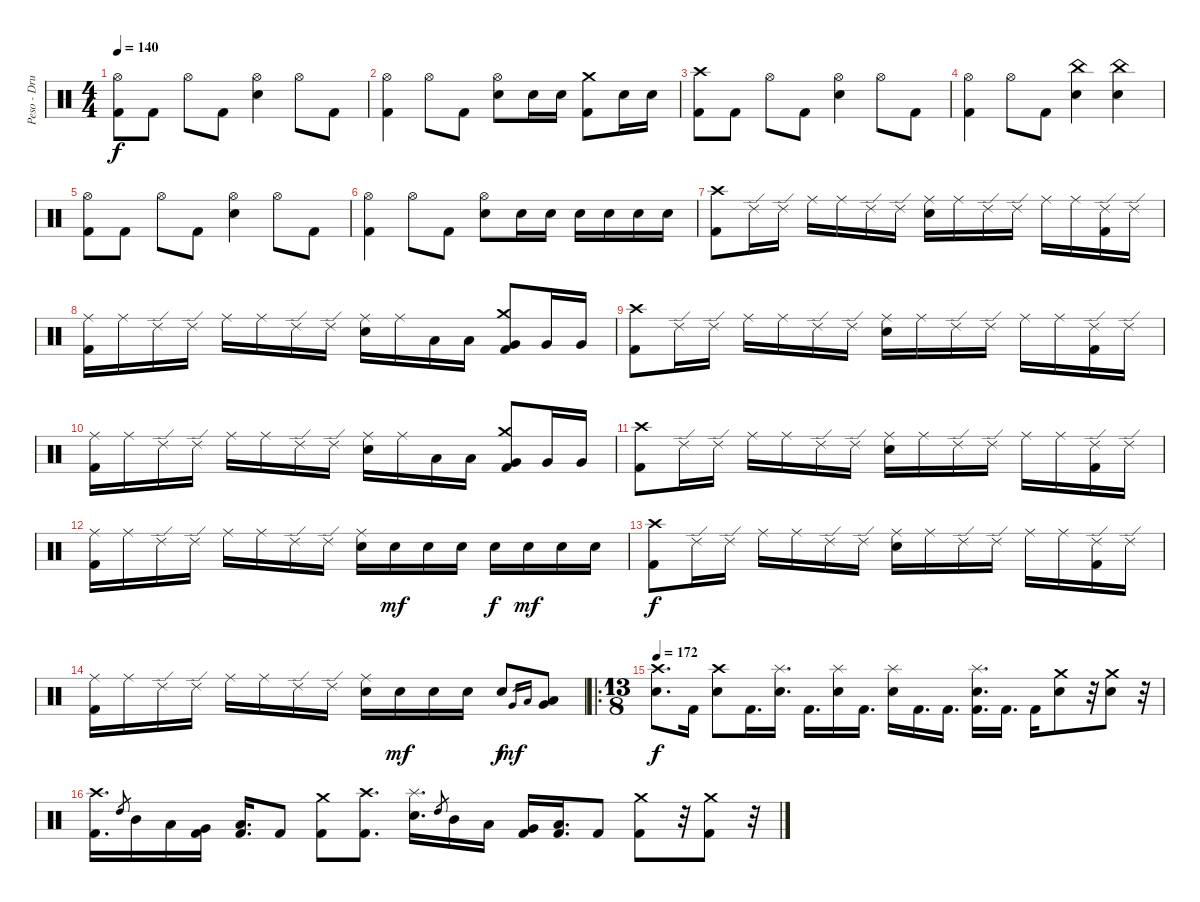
\track ("Peso - Drums" "Peso - Dru") {instrument percussion}
\staff {score}
\articulation defaults
\ts (4 4)
\tempo 140
\clef neutral
\ks c
("Hi-Hat (open)" "Kick (hit) 2").8{dy f} "Kick (hit) 2".8 "Hi-Hat (open)".8 "Kick (hit) 2".8 ("Hi-Hat (open)" "Electric Snare (hit)").4 "Hi-Hat (open)".8 "Kick (hit) 2".8 |
("Hi-Hat (open)" "Kick (hit) 2").4 "Hi-Hat (open)".8 "Kick (hit) 2".8 ("Hi-Hat (open)" "Electric Snare (hit)").8 "Electric Snare (hit)".16 "Electric Snare (hit)".16 ("Crash medium (hit)" "Kick (hit) 2").8 "Electric Snare (hit)".16 "Electric Snare (hit)".16 |
("Crash high (hit)" "Kick (hit) 2").8 "Kick (hit) 2".8 "Hi-Hat (open)".8 "Kick (hit) 2".8 ("Hi-Hat (open)" "Electric Snare (hit)").4 "Hi-Hat (open)".8 "Kick (hit) 2".8 |
("Hi-Hat (open)" "Kick (hit) 2").4 "Hi-Hat (open)".8 "Kick (hit) 2".8 ("China (hit)" "Electric Snare (hit)").4 ("China (hit)" "Electric Snare (hit)").4 |
("Hi-Hat (open)" "Kick (hit) 2").8 "Kick (hit) 2".8 "Hi-Hat (open)".8 "Kick (hit) 2".8 ("Hi-Hat (open)" "Electric Snare (hit)").4 "Hi-Hat (open)".8 "Kick (hit) 2".8 |
("Hi-Hat (open)" "Kick (hit) 2").4 "Hi-Hat (open)".8 "Kick (hit) 2".8 ("Hi-Hat (open)" "Electric Snare (hit)").8 "Electric Snare (hit)".16 "Electric Snare (hit)".16 "Electric Snare (hit)".16 "Electric Snare (hit)".16 "Electric Snare (hit)".16 "Electric Snare (hit)".16 |
("Crash high (hit)" "Kick (hit) 2").8 "Ride (edge) 2".16 "Ride (edge) 2".16 "Ride (middle)".16 "Ride (middle)".16 "Ride (edge) 2".16 "Ride (edge) 2".16 ("Ride (middle)" "Electric Snare (hit)").16 "Ride (middle)".16 "Ride (edge) 2".16 "Ride (edge) 2".16 "Ride (middle)".16 "Ride (middle)".16 ("Ride (edge) 2" "Kick (hit) 2").16 "Ride (edge) 2".16 |
("Ride (middle)" "Kick (hit) 2").16 "Ride (middle)".16 "Ride (edge) 2".16 "Ride (edge) 2".16 "Ride (middle)".16 "Ride (middle)".16 "Ride (edge) 2".16 "Ride (edge) 2".16 ("Ride (middle)" "Electric Snare (hit)").16 "Ride (middle)".16 "Low Tom (hit)".16 "Low Tom (hit)".16 ("Crash medium (hit)" "Very Low Tom (hit)" "Kick (hit) 2").8 "Very Low Tom (hit)".16 "Very Low Tom (hit)".16 |
("Crash high (hit)" "Kick (hit) 2").8 "Ride (edge) 2".16 "Ride (edge) 2".16 "Ride (middle)".16 "Ride (middle)".16 "Ride (edge) 2".16 "Ride (edge) 2".16 ("Ride (middle)" "Electric Snare (hit)").16 "Ride (middle)".16 "Ride (edge) 2".16 "Ride (edge) 2".16 "Ride (middle)".16 "Ride (middle)".16 ("Ride (edge) 2" "Kick (hit) 2").16 "Ride (edge) 2".16 |
("Ride (middle)" "Kick (hit) 2").16 "Ride (middle)".16 "Ride (edge) 2".16 "Ride (edge) 2".16 "Ride (middle)".16 "Ride (middle)".16 "Ride (edge) 2".16 "Ride (edge) 2".16 ("Ride (middle)" "Electric Snare (hit)").16 "Ride (middle)".16 "Low Tom (hit)".16 "Low Tom (hit)".16 ("Crash medium (hit)" "Very Low Tom (hit)" "Kick (hit) 2").8 "Very Low Tom (hit)".16 "Very Low Tom (hit)".16 |
("Crash high (hit)" "Kick (hit) 2").8 "Ride (edge) 2".16 "Ride (edge) 2".16 "Ride (middle)".16 "Ride (middle)".16 "Ride (edge) 2".16 "Ride (edge) 2".16 ("Ride (middle)" "Electric Snare (hit)").16 "Ride (middle)".16 "Ride (edge) 2".16 "Ride (edge) 2".16 "Ride (middle)".16 "Ride (middle)".16 ("Ride (edge) 2" "Kick (hit) 2").16 "Ride (edge) 2".16 |
("Ride (middle)" "Kick (hit) 2").16 "Ride (middle)".16 "Ride (edge) 2".16 "Ride (edge) 2".16 "Ride (middle)".16 "Ride (middle)".16 "Ride (edge) 2".16 "Ride (edge) 2".16 ("Ride (middle)" "Electric Snare (hit)").16 "Electric Snare (hit)".16{dy mf} "Electric Snare (hit)".16 "Electric Snare (hit)".16 "Electric Snare (hit)".16{dy f} "Electric Snare (hit)".16{dy mf} "Electric Snare (hit)".16 "Electric Snare (hit)".16 |
("Crash high (hit)" "Kick (hit) 2").8{dy f} "Ride (edge) 2".16 "Ride (edge) 2".16 "Ride (middle)".16 "Ride (middle)".16 "Ride (edge) 2".16 "Ride (edge) 2".16 ("Ride (middle)" "Electric Snare (hit)").16 "Ride (middle)".16 "Ride (edge) 2".16 "Ride (edge) 2".16 "Ride (middle)".16 "Ride (middle)".16 ("Ride (edge) 2" "Kick (hit) 2").16 "Ride (edge) 2".16 |
("Ride (middle)" "Kick (hit) 2").16 "Ride (middle)".16 "Ride (edge) 2".16 "Ride (edge) 2".16 "Ride (middle)".16 "Ride (middle)".16 "Ride (edge) 2".16 "Ride (edge) 2".16 ("Ride (middle)" "Electric Snare (hit)").16 "Electric Snare (hit)".16{dy mf} "Electric Snare (hit)".16 "Electric Snare (hit)".16 "Electric Snare (hit)".8{dy f} "Very Low Tom (hit)".16{gr dy mf} "Low Tom (hit)".16{gr} ("Very Low Tom (hit)" "Low Tom (hit)").8 |
\ro
\ts (13 8)
\tempo 172
("Crash high (hit)" "Electric Snare (hit)").8{d dy f} "Kick (hit) 2".16 ("Crash high (hit)" "Electric Snare (hit)").8 "Kick (hit) 2".16{d} ("Splash (hit)" "Electric Snare (hit)").16{d} "Kick (hit) 2".16{d} ("Splash (hit)" "Electric Snare (hit)").16 "Kick (hit) 2".16{d} ("Splash (hit)" "Electric Snare (hit)").16 "Kick (hit) 2".16{d} "Kick (hit) 2".16{d} ("Splash (hit)" "Electric Snare (hit)" "Kick (hit) 2").16{d} "Kick (hit) 2".16{d} "Kick (hit) 2".16 ("Crash medium (hit)" "Electric Snare (hit)").8 r.32 ("Crash medium (hit)" "Electric Snare (hit)").8 r.32 |
("Crash high (hit)" "Kick (hit) 2").16{d} "High Tom (hit)".8{gr} "Mid Tom (hit)".16 "Low Tom (hit)".16 ("Very Low Tom (hit)" "Kick (hit) 2").16 ("Low Floor Tom (hit)" "Kick (hit) 2").16{d} "Kick (hit) 2".8 ("Crash medium (hit)" "Kick (hit) 2").8 ("Crash high (hit)" "Kick (hit) 2").8{d} ("Splash (hit)" "Electric Snare (hit)").16{d} "High Tom (hit)".8{gr} "Mid Tom (hit)".16 "Low Tom (hit)".16 ("Very Low Tom (hit)" "Kick (hit) 2").16 ("Low Floor Tom (hit)" "Kick (hit) 2").16{d} "Kick (hit) 2".8 ("Crash medium (hit)" "Kick (hit) 2").8 r.32 ("Crash medium (hit)" "Kick (hit) 2").8 r.32
